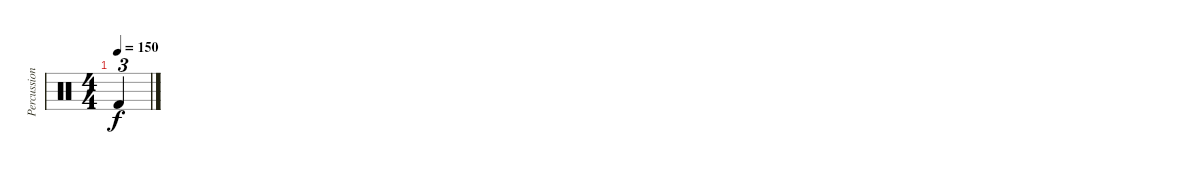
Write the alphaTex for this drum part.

\track ("Percussion" "Percussion") {instrument percussion}
\staff {score}
\articulation defaults
\ts (4 4)
\tempo 150
\clef neutral
\ks c "Kick (hit) 2".4{tu (3 2) dy f}
